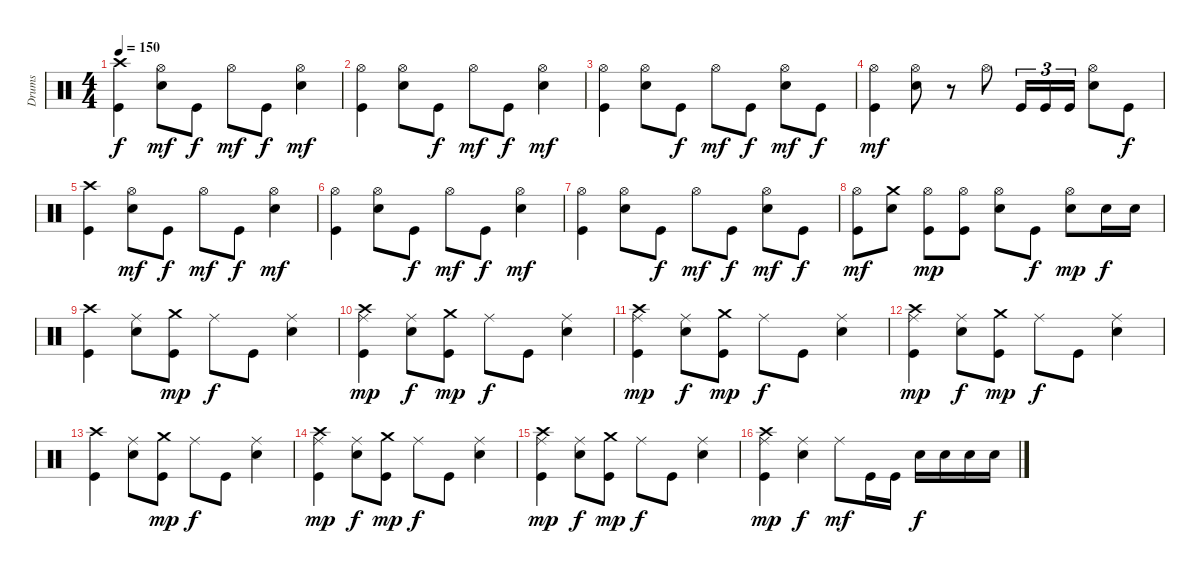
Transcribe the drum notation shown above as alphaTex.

\track ("Drums" "Drums") {instrument percussion}
\staff {score}
\articulation defaults
\ts (4 4)
\tempo 150
\clef neutral
\ks c
("Kick (hit)" "Crash high (hit)").4{dy f} ("Electric Snare (hit)" "Hi-Hat (open)").8{dy mf} "Kick (hit)".8{dy f} "Hi-Hat (open)".8{dy mf} "Kick (hit)".8{dy f} ("Electric Snare (hit)" "Hi-Hat (open)").4{dy mf} |
("Kick (hit)" "Hi-Hat (open)").4 ("Electric Snare (hit)" "Hi-Hat (open)").8 "Kick (hit)".8{dy f} "Hi-Hat (open)".8{dy mf} "Kick (hit)".8{dy f} ("Electric Snare (hit)" "Hi-Hat (open)").4{dy mf} |
("Kick (hit)" "Hi-Hat (open)").4 ("Electric Snare (hit)" "Hi-Hat (open)").8 "Kick (hit)".8{dy f} "Hi-Hat (open)".8{dy mf} "Kick (hit)".8{dy f} ("Electric Snare (hit)" "Hi-Hat (open)").8{dy mf} "Kick (hit)".8{dy f} |
("Kick (hit)" "Hi-Hat (open)").4{dy mf} ("Electric Snare (hit)" "Hi-Hat (open)").8 r.8 "Hi-Hat (open)".8 "Kick (hit)".16{tu (3 2)} "Kick (hit)".16{tu (3 2)} "Kick (hit)".16{tu (3 2)} ("Electric Snare (hit)" "Hi-Hat (open)").8 "Kick (hit)".8{dy f} |
("Kick (hit)" "Crash high (hit)").4 ("Electric Snare (hit)" "Hi-Hat (open)").8{dy mf} "Kick (hit)".8{dy f} "Hi-Hat (open)".8{dy mf} "Kick (hit)".8{dy f} ("Electric Snare (hit)" "Hi-Hat (open)").4{dy mf} |
("Kick (hit)" "Hi-Hat (open)").4 ("Electric Snare (hit)" "Hi-Hat (open)").8 "Kick (hit)".8{dy f} "Hi-Hat (open)".8{dy mf} "Kick (hit)".8{dy f} ("Electric Snare (hit)" "Hi-Hat (open)").4{dy mf} |
("Kick (hit)" "Hi-Hat (open)").4 ("Electric Snare (hit)" "Hi-Hat (open)").8 "Kick (hit)".8{dy f} "Hi-Hat (open)".8{dy mf} "Kick (hit)".8{dy f} ("Electric Snare (hit)" "Hi-Hat (open)").8{dy mf} "Kick (hit)".8{dy f} |
("Kick (hit)" "Hi-Hat (open)").8{dy mf} ("Electric Snare (hit)" "Crash medium (hit)").8 ("Kick (hit)" "Hi-Hat (open)").8{dy mp} ("Kick (hit)" "Hi-Hat (open)").8 ("Electric Snare (hit)" "Hi-Hat (open)").8 "Kick (hit)".8{dy f} ("Electric Snare (hit)" "Hi-Hat (open)").8{dy mp} "Electric Snare (hit)".16{dy f} "Electric Snare (hit)".16 |
("Kick (hit)" "Crash high (hit)").4 ("Electric Snare (hit)" "Ride (middle)").8 ("Kick (hit)" "Crash medium (hit)").8{dy mp} "Ride (middle)".8{dy f} "Kick (hit)".8 ("Electric Snare (hit)" "Ride (middle)").4 |
("Kick (hit)" "Ride (middle)" "Crash high (hit)").4{dy mp} ("Electric Snare (hit)" "Ride (middle)").8{dy f} ("Kick (hit)" "Crash medium (hit)").8{dy mp} "Ride (middle)".8{dy f} "Kick (hit)".8 ("Electric Snare (hit)" "Ride (middle)").4 |
("Kick (hit)" "Ride (middle)" "Crash high (hit)").4{dy mp} ("Electric Snare (hit)" "Ride (middle)").8{dy f} ("Kick (hit)" "Crash medium (hit)").8{dy mp} "Ride (middle)".8{dy f} "Kick (hit)".8 ("Electric Snare (hit)" "Ride (middle)").4 |
("Kick (hit)" "Ride (middle)" "Crash high (hit)").4{dy mp} ("Electric Snare (hit)" "Ride (middle)").8{dy f} ("Kick (hit)" "Crash medium (hit)").8{dy mp} "Ride (middle)".8{dy f} "Kick (hit)".8 ("Electric Snare (hit)" "Ride (middle)").4 |
("Kick (hit)" "Crash high (hit)").4 ("Electric Snare (hit)" "Ride (middle)").8 ("Kick (hit)" "Crash medium (hit)").8{dy mp} "Ride (middle)".8{dy f} "Kick (hit)".8 ("Electric Snare (hit)" "Ride (middle)").4 |
("Kick (hit)" "Ride (middle)" "Crash high (hit)").4{dy mp} ("Electric Snare (hit)" "Ride (middle)").8{dy f} ("Kick (hit)" "Crash medium (hit)").8{dy mp} "Ride (middle)".8{dy f} "Kick (hit)".8 ("Electric Snare (hit)" "Ride (middle)").4 |
("Kick (hit)" "Ride (middle)" "Crash high (hit)").4{dy mp} ("Electric Snare (hit)" "Ride (middle)").8{dy f} ("Kick (hit)" "Crash medium (hit)").8{dy mp} "Ride (middle)".8{dy f} "Kick (hit)".8 ("Electric Snare (hit)" "Ride (middle)").4 |
("Kick (hit)" "Ride (middle)" "Crash high (hit)").4{dy mp} ("Electric Snare (hit)" "Ride (middle)").4{dy f} "Ride (middle)".8{dy mf} "Kick (hit)".16 "Kick (hit)".16 "Electric Snare (hit)".16{dy f} "Electric Snare (hit)".16 "Electric Snare (hit)".16 "Electric Snare (hit)".16
